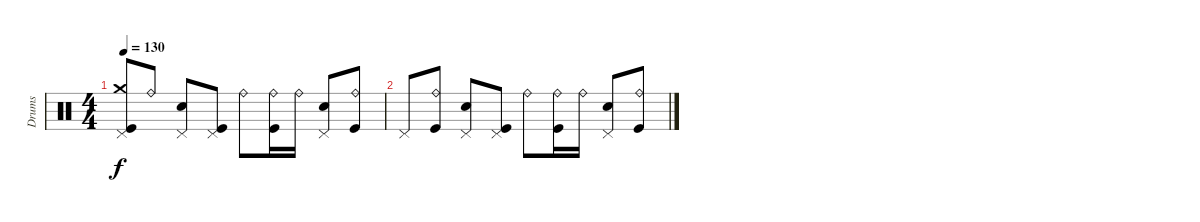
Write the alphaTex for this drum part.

\track ("Drums" "Drums") {instrument percussion}
\staff {score}
\articulation defaults
\ts (4 4)
\tempo 130
\clef neutral
\ks c
("Kick (hit)" "Crash medium (hit)" "Pedal Hi-Hat (hit)").8{dy f} "Ride (bell)".8 ("Electric Snare (hit)" "Pedal Hi-Hat (hit)").8 ("Kick (hit)" "Pedal Hi-Hat (hit)").8 "Ride (bell)".8 ("Kick (hit)" "Ride (bell)").16 "Ride (bell)".16 ("Electric Snare (hit)" "Pedal Hi-Hat (hit)").8 ("Kick (hit)" "Ride (bell)").8 |
"Pedal Hi-Hat (hit)".8 ("Kick (hit)" "Ride (bell)").8 ("Electric Snare (hit)" "Pedal Hi-Hat (hit)").8 ("Kick (hit)" "Pedal Hi-Hat (hit)").8 "Ride (bell)".8 ("Kick (hit)" "Ride (bell)").16 "Ride (bell)".16 ("Electric Snare (hit)" "Pedal Hi-Hat (hit)").8 ("Kick (hit)" "Ride (bell)").8
